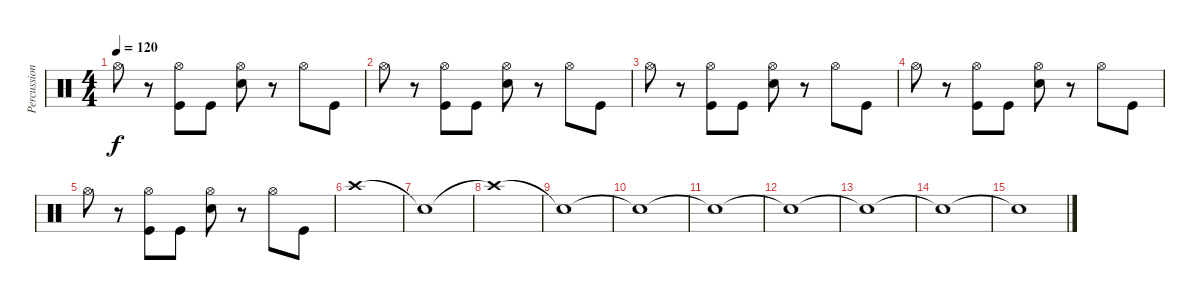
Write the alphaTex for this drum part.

\track ("Percussion" "Percussion") {instrument percussion}
\staff {score}
\articulation defaults
\ts (4 4)
\tempo 120
\clef neutral
\ks c "Hi-Hat (open)".8{dy f}
r.8 ("Hi-Hat (open)" "Kick (hit)").8 "Kick (hit)".8 ("Hi-Hat (open)" "Electric Snare (hit)").8 r.8 "Hi-Hat (open)".8 "Kick (hit)".8 |
"Hi-Hat (open)".8 r.8 ("Hi-Hat (open)" "Kick (hit)").8 "Kick (hit)".8 ("Hi-Hat (open)" "Electric Snare (hit)").8 r.8 "Hi-Hat (open)".8 "Kick (hit)".8 |
"Hi-Hat (open)".8 r.8 ("Hi-Hat (open)" "Kick (hit)").8 "Kick (hit)".8 ("Hi-Hat (open)" "Electric Snare (hit)").8 r.8 "Hi-Hat (open)".8 "Kick (hit)".8 |
"Hi-Hat (open)".8 r.8 ("Hi-Hat (open)" "Kick (hit)").8 "Kick (hit)".8 ("Hi-Hat (open)" "Electric Snare (hit)").8 r.8 "Hi-Hat (open)".8 "Kick (hit)".8 |
"Hi-Hat (open)".8 r.8 ("Hi-Hat (open)" "Kick (hit)").8 "Kick (hit)".8 ("Hi-Hat (open)" "Electric Snare (hit)").8 r.8 "Hi-Hat (open)".8 "Kick (hit)".8 |
"Crash high (hit)".1 |
"Snare (hit)"{t}.1 |
"Crash high (hit)"{t}.1 |
"Snare (hit)"{t}.1 |
"Snare (hit)"{t}.1 |
"Snare (hit)"{t}.1 |
"Snare (hit)"{t}.1 |
"Snare (hit)"{t}.1 |
"Snare (hit)"{t}.1 |
"Snare (hit)"{t}.1
